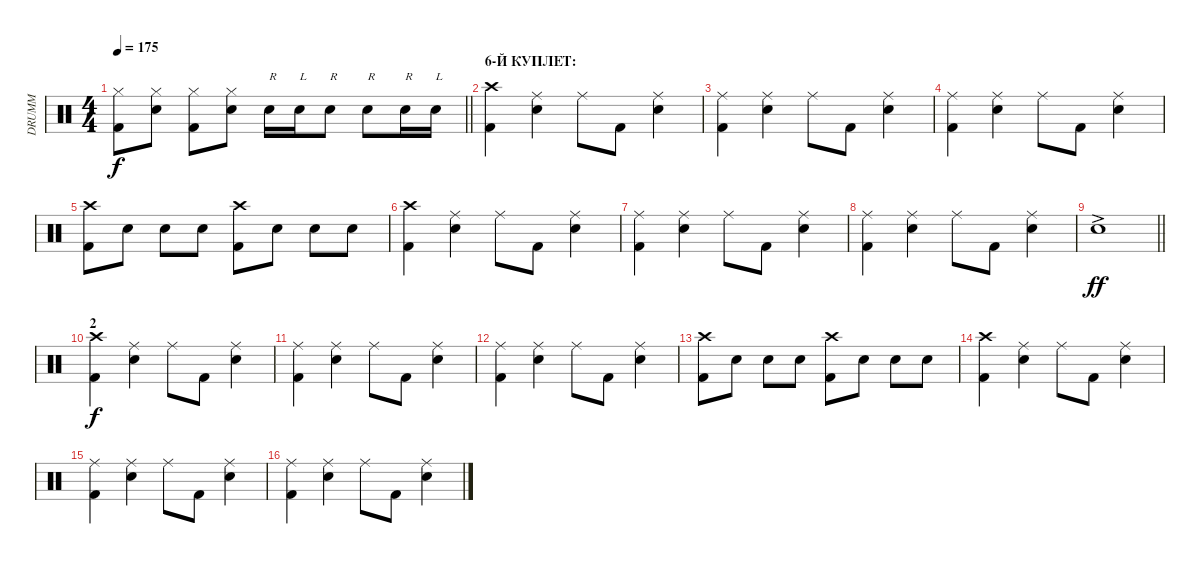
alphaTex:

\track ("DRUMM" "DRUMM") {instrument percussion}
\staff {score}
\articulation defaults
\ts (4 4)
\tempo 175
\clef neutral
\barLineRight lightlight
\ks c
("Hi-Hat (closed)" "Kick (hit) 2").8{dy f} ("Hi-Hat (closed)" "Electric Snare (hit)").8 ("Hi-Hat (closed)" "Kick (hit) 2").8 ("Hi-Hat (closed)" "Electric Snare (hit)").8 "Electric Snare (hit)".16{txt "R"} "Electric Snare (hit)".16{txt "L"} "Electric Snare (hit)".8{txt "R"} "Electric Snare (hit)".8{txt "R"} "Electric Snare (hit)".16{txt "R"} "Electric Snare (hit)".16{txt "L"} |
\section ("" "6-Й КУПЛЕТ:")
("Crash high (hit)" "Kick (hit) 2").4 ("Ride (middle)" "Electric Snare (hit)").4 "Ride (middle)".8 "Kick (hit) 2".8 ("Electric Snare (hit)" "Ride (middle)").4 |
("Ride (middle)" "Kick (hit) 2").4 ("Electric Snare (hit)" "Ride (middle)").4 "Ride (middle)".8 "Kick (hit) 2".8 ("Electric Snare (hit)" "Ride (middle)").4 |
("Ride (middle)" "Kick (hit) 2").4 ("Electric Snare (hit)" "Ride (middle)").4 "Ride (middle)".8 "Kick (hit) 2".8 ("Electric Snare (hit)" "Ride (middle)").4 |
("Crash high (hit)" "Kick (hit) 2").8 "Electric Snare (hit)".8 "Electric Snare (hit)".8 "Electric Snare (hit)".8 ("Crash high (hit)" "Kick (hit) 2").8 "Electric Snare (hit)".8 "Electric Snare (hit)".8 "Electric Snare (hit)".8 |
("Crash high (hit)" "Kick (hit) 2").4 ("Ride (middle)" "Electric Snare (hit)").4 "Ride (middle)".8 "Kick (hit) 2".8 ("Electric Snare (hit)" "Ride (middle)").4 |
("Ride (middle)" "Kick (hit) 2").4 ("Electric Snare (hit)" "Ride (middle)").4 "Ride (middle)".8 "Kick (hit) 2".8 ("Electric Snare (hit)" "Ride (middle)").4 |
("Ride (middle)" "Kick (hit) 2").4 ("Electric Snare (hit)" "Ride (middle)").4 "Ride (middle)".8 "Kick (hit) 2".8 ("Electric Snare (hit)" "Ride (middle)").4 |
\barLineRight lightlight "Electric Snare (hit)"{ac}.1{dy ff}
|
\section ("" "2")
("Crash high (hit)" "Kick (hit) 2").4{dy f} ("Ride (middle)" "Electric Snare (hit)").4 "Ride (middle)".8 "Kick (hit) 2".8 ("Electric Snare (hit)" "Ride (middle)").4 |
("Ride (middle)" "Kick (hit) 2").4 ("Electric Snare (hit)" "Ride (middle)").4 "Ride (middle)".8 "Kick (hit) 2".8 ("Electric Snare (hit)" "Ride (middle)").4 |
("Ride (middle)" "Kick (hit) 2").4 ("Electric Snare (hit)" "Ride (middle)").4 "Ride (middle)".8 "Kick (hit) 2".8 ("Electric Snare (hit)" "Ride (middle)").4 |
("Crash high (hit)" "Kick (hit) 2").8 "Electric Snare (hit)".8 "Electric Snare (hit)".8 "Electric Snare (hit)".8 ("Crash high (hit)" "Kick (hit) 2").8 "Electric Snare (hit)".8 "Electric Snare (hit)".8 "Electric Snare (hit)".8 |
("Crash high (hit)" "Kick (hit) 2").4 ("Ride (middle)" "Electric Snare (hit)").4 "Ride (middle)".8 "Kick (hit) 2".8 ("Electric Snare (hit)" "Ride (middle)").4 |
("Ride (middle)" "Kick (hit) 2").4 ("Electric Snare (hit)" "Ride (middle)").4 "Ride (middle)".8 "Kick (hit) 2".8 ("Electric Snare (hit)" "Ride (middle)").4 |
("Ride (middle)" "Kick (hit) 2").4 ("Electric Snare (hit)" "Ride (middle)").4 "Ride (middle)".8 "Kick (hit) 2".8 ("Electric Snare (hit)" "Ride (middle)").4
